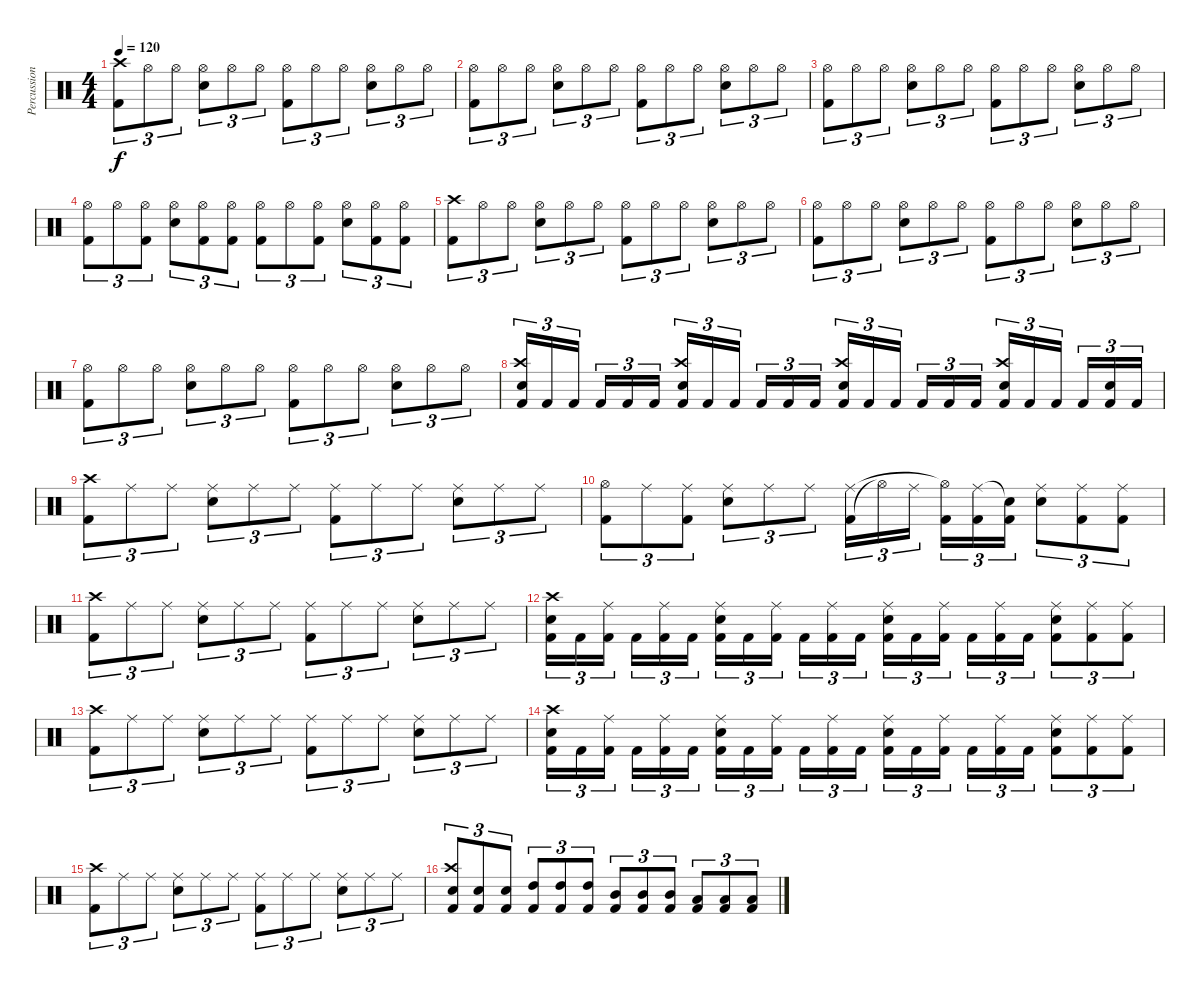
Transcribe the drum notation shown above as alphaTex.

\track ("Percussions" "Percussion") {instrument percussion}
\staff {score}
\articulation defaults
\ts (4 4)
\tempo 120
\clef neutral
\ks c
("Kick (hit) 2" "Crash high (hit)").8{tu (3 2) dy f} "Hi-Hat (open)".8{tu (3 2)} "Hi-Hat (open)".8{tu (3 2)} ("Snare (hit) 2" "Hi-Hat (open)").8{tu (3 2)} "Hi-Hat (open)".8{tu (3 2)} "Hi-Hat (open)".8{tu (3 2)} ("Kick (hit) 2" "Hi-Hat (open)").8{tu (3 2)} "Hi-Hat (open)".8{tu (3 2)} "Hi-Hat (open)".8{tu (3 2)} ("Snare (hit) 2" "Hi-Hat (open)").8{tu (3 2)} "Hi-Hat (open)".8{tu (3 2)} "Hi-Hat (open)".8{tu (3 2)} |
("Kick (hit) 2" "Hi-Hat (open)").8{tu (3 2)} "Hi-Hat (open)".8{tu (3 2)} "Hi-Hat (open)".8{tu (3 2)} ("Snare (hit) 2" "Hi-Hat (open)").8{tu (3 2)} "Hi-Hat (open)".8{tu (3 2)} "Hi-Hat (open)".8{tu (3 2)} ("Kick (hit) 2" "Hi-Hat (open)").8{tu (3 2)} "Hi-Hat (open)".8{tu (3 2)} "Hi-Hat (open)".8{tu (3 2)} ("Snare (hit) 2" "Hi-Hat (open)").8{tu (3 2)} "Hi-Hat (open)".8{tu (3 2)} "Hi-Hat (open)".8{tu (3 2)} |
("Kick (hit) 2" "Hi-Hat (open)").8{tu (3 2)} "Hi-Hat (open)".8{tu (3 2)} "Hi-Hat (open)".8{tu (3 2)} ("Snare (hit) 2" "Hi-Hat (open)").8{tu (3 2)} "Hi-Hat (open)".8{tu (3 2)} "Hi-Hat (open)".8{tu (3 2)} ("Kick (hit) 2" "Hi-Hat (open)").8{tu (3 2)} "Hi-Hat (open)".8{tu (3 2)} "Hi-Hat (open)".8{tu (3 2)} ("Snare (hit) 2" "Hi-Hat (open)").8{tu (3 2)} "Hi-Hat (open)".8{tu (3 2)} "Hi-Hat (open)".8{tu (3 2)} |
("Kick (hit) 2" "Hi-Hat (open)").8{tu (3 2)} "Hi-Hat (open)".8{tu (3 2)} ("Kick (hit) 2" "Hi-Hat (open)").8{tu (3 2)} ("Snare (hit) 2" "Hi-Hat (open)").8{tu (3 2)} ("Kick (hit) 2" "Hi-Hat (open)").8{tu (3 2)} ("Kick (hit) 2" "Hi-Hat (open)").8{tu (3 2)} ("Kick (hit) 2" "Hi-Hat (open)").8{tu (3 2)} "Hi-Hat (open)".8{tu (3 2)} ("Kick (hit) 2" "Hi-Hat (open)").8{tu (3 2)} ("Snare (hit) 2" "Hi-Hat (open)").8{tu (3 2)} ("Kick (hit) 2" "Hi-Hat (open)").8{tu (3 2)} ("Kick (hit) 2" "Hi-Hat (open)").8{tu (3 2)} |
("Kick (hit) 2" "Crash high (hit)").8{tu (3 2)} "Hi-Hat (open)".8{tu (3 2)} "Hi-Hat (open)".8{tu (3 2)} ("Snare (hit) 2" "Hi-Hat (open)").8{tu (3 2)} "Hi-Hat (open)".8{tu (3 2)} "Hi-Hat (open)".8{tu (3 2)} ("Kick (hit) 2" "Hi-Hat (open)").8{tu (3 2)} "Hi-Hat (open)".8{tu (3 2)} "Hi-Hat (open)".8{tu (3 2)} ("Snare (hit) 2" "Hi-Hat (open)").8{tu (3 2)} "Hi-Hat (open)".8{tu (3 2)} "Hi-Hat (open)".8{tu (3 2)} |
("Kick (hit) 2" "Hi-Hat (open)").8{tu (3 2)} "Hi-Hat (open)".8{tu (3 2)} "Hi-Hat (open)".8{tu (3 2)} ("Snare (hit) 2" "Hi-Hat (open)").8{tu (3 2)} "Hi-Hat (open)".8{tu (3 2)} "Hi-Hat (open)".8{tu (3 2)} ("Kick (hit) 2" "Hi-Hat (open)").8{tu (3 2)} "Hi-Hat (open)".8{tu (3 2)} "Hi-Hat (open)".8{tu (3 2)} ("Snare (hit) 2" "Hi-Hat (open)").8{tu (3 2)} "Hi-Hat (open)".8{tu (3 2)} "Hi-Hat (open)".8{tu (3 2)} |
("Kick (hit) 2" "Hi-Hat (open)").8{tu (3 2)} "Hi-Hat (open)".8{tu (3 2)} "Hi-Hat (open)".8{tu (3 2)} ("Snare (hit) 2" "Hi-Hat (open)").8{tu (3 2)} "Hi-Hat (open)".8{tu (3 2)} "Hi-Hat (open)".8{tu (3 2)} ("Kick (hit) 2" "Hi-Hat (open)").8{tu (3 2)} "Hi-Hat (open)".8{tu (3 2)} "Hi-Hat (open)".8{tu (3 2)} ("Snare (hit) 2" "Hi-Hat (open)").8{tu (3 2)} "Hi-Hat (open)".8{tu (3 2)} "Hi-Hat (open)".8{tu (3 2)} |
("Kick (hit) 2" "Snare (hit) 2" "Crash high (hit)").16{tu (3 2)} "Kick (hit) 2".16{tu (3 2)} "Kick (hit) 2".16{tu (3 2)} "Kick (hit) 2".16{tu (3 2)} "Kick (hit) 2".16{tu (3 2)} "Kick (hit) 2".16{tu (3 2)} ("Kick (hit) 2" "Snare (hit) 2" "Crash high (hit)").16{tu (3 2)} "Kick (hit) 2".16{tu (3 2)} "Kick (hit) 2".16{tu (3 2)} "Kick (hit) 2".16{tu (3 2)} "Kick (hit) 2".16{tu (3 2)} "Kick (hit) 2".16{tu (3 2)} ("Kick (hit) 2" "Snare (hit) 2" "Crash high (hit)").16{tu (3 2)} "Kick (hit) 2".16{tu (3 2)} "Kick (hit) 2".16{tu (3 2)} "Kick (hit) 2".16{tu (3 2)} "Kick (hit) 2".16{tu (3 2)} "Kick (hit) 2".16{tu (3 2)} ("Kick (hit) 2" "Snare (hit) 2" "Crash high (hit)").16{tu (3 2)} "Kick (hit) 2".16{tu (3 2)} "Kick (hit) 2".16{tu (3 2)} "Kick (hit) 2".16{tu (3 2)} ("Kick (hit) 2" "Snare (hit) 2").16{tu (3 2)} "Kick (hit) 2".16{tu (3 2)} |
("Kick (hit) 2" "Crash high (hit)").8{tu (3 2)} "Ride (middle)".8{tu (3 2)} "Ride (middle)".8{tu (3 2)} ("Snare (hit) 2" "Ride (middle)").8{tu (3 2)} "Ride (middle)".8{tu (3 2)} "Ride (middle)".8{tu (3 2)} ("Kick (hit) 2" "Ride (middle)").8{tu (3 2)} "Ride (middle)".8{tu (3 2)} "Ride (middle)".8{tu (3 2)} ("Snare (hit) 2" "Ride (middle)").8{tu (3 2)} "Ride (middle)".8{tu (3 2)} "Ride (middle)".8{tu (3 2)} |
("Kick (hit) 2" "Hi-Hat (open)").8{tu (3 2)} "Ride (middle)".8{tu (3 2)} ("Kick (hit) 2" "Ride (middle)").8{tu (3 2)} ("Snare (hit) 2" "Ride (middle)").8{tu (3 2)} "Ride (middle)".8{tu (3 2)} "Ride (middle)".8{tu (3 2)} ("Kick (hit) 2" "Ride (middle)").16{tu (3 2)} "Hi-Hat (open)"{t}.16{tu (3 2)} "Ride (middle)".16{tu (3 2)} ("Kick (hit) 2" "Hi-Hat (open)"{t}).16{tu (3 2)} ("Kick (hit) 2" "Ride (middle)").16{tu (3 2)} ("Kick (hit) 2" "Snare (hit)"{t}).16{tu (3 2)} ("Snare (hit) 2" "Ride (middle)").8{tu (3 2)} ("Kick (hit) 2" "Ride (middle)").8{tu (3 2)} ("Kick (hit) 2" "Ride (middle)").8{tu (3 2)} |
("Kick (hit) 2" "Crash high (hit)").8{tu (3 2)} "Ride (middle)".8{tu (3 2)} "Ride (middle)".8{tu (3 2)} ("Snare (hit) 2" "Ride (middle)").8{tu (3 2)} "Ride (middle)".8{tu (3 2)} "Ride (middle)".8{tu (3 2)} ("Kick (hit) 2" "Ride (middle)").8{tu (3 2)} "Ride (middle)".8{tu (3 2)} "Ride (middle)".8{tu (3 2)} ("Snare (hit) 2" "Ride (middle)").8{tu (3 2)} "Ride (middle)".8{tu (3 2)} "Ride (middle)".8{tu (3 2)} |
("Kick (hit) 2" "Snare (hit) 2" "Crash high (hit)").16{tu (3 2)} "Kick (hit) 2".16{tu (3 2)} ("Kick (hit) 2" "Ride (middle)").16{tu (3 2)} "Kick (hit) 2".16{tu (3 2)} ("Kick (hit) 2" "Ride (middle)").16{tu (3 2)} "Kick (hit) 2".16{tu (3 2)} ("Kick (hit) 2" "Snare (hit) 2" "Ride (middle)").16{tu (3 2)} "Kick (hit) 2".16{tu (3 2)} ("Kick (hit) 2" "Ride (middle)").16{tu (3 2)} "Kick (hit) 2".16{tu (3 2)} ("Kick (hit) 2" "Ride (middle)").16{tu (3 2)} "Kick (hit) 2".16{tu (3 2)} ("Kick (hit) 2" "Snare (hit) 2" "Ride (middle)").16{tu (3 2)} "Kick (hit) 2".16{tu (3 2)} ("Kick (hit) 2" "Ride (middle)").16{tu (3 2)} "Kick (hit) 2".16{tu (3 2)} ("Kick (hit) 2" "Ride (middle)").16{tu (3 2)} "Kick (hit) 2".16{tu (3 2)} ("Kick (hit) 2" "Snare (hit) 2" "Ride (middle)").8{tu (3 2)} ("Kick (hit) 2" "Ride (middle)").8{tu (3 2)} ("Kick (hit) 2" "Ride (middle)").8{tu (3 2)} |
("Kick (hit) 2" "Crash high (hit)").8{tu (3 2)} "Ride (middle)".8{tu (3 2)} "Ride (middle)".8{tu (3 2)} ("Snare (hit) 2" "Ride (middle)").8{tu (3 2)} "Ride (middle)".8{tu (3 2)} "Ride (middle)".8{tu (3 2)} ("Kick (hit) 2" "Ride (middle)").8{tu (3 2)} "Ride (middle)".8{tu (3 2)} "Ride (middle)".8{tu (3 2)} ("Snare (hit) 2" "Ride (middle)").8{tu (3 2)} "Ride (middle)".8{tu (3 2)} "Ride (middle)".8{tu (3 2)} |
("Kick (hit) 2" "Snare (hit) 2" "Crash high (hit)").16{tu (3 2)} "Kick (hit) 2".16{tu (3 2)} ("Kick (hit) 2" "Ride (middle)").16{tu (3 2)} "Kick (hit) 2".16{tu (3 2)} ("Kick (hit) 2" "Ride (middle)").16{tu (3 2)} "Kick (hit) 2".16{tu (3 2)} ("Kick (hit) 2" "Snare (hit) 2" "Ride (middle)").16{tu (3 2)} "Kick (hit) 2".16{tu (3 2)} ("Kick (hit) 2" "Ride (middle)").16{tu (3 2)} "Kick (hit) 2".16{tu (3 2)} ("Kick (hit) 2" "Ride (middle)").16{tu (3 2)} "Kick (hit) 2".16{tu (3 2)} ("Kick (hit) 2" "Snare (hit) 2" "Ride (middle)").16{tu (3 2)} "Kick (hit) 2".16{tu (3 2)} ("Kick (hit) 2" "Ride (middle)").16{tu (3 2)} "Kick (hit) 2".16{tu (3 2)} ("Kick (hit) 2" "Ride (middle)").16{tu (3 2)} "Kick (hit) 2".16{tu (3 2)} ("Kick (hit) 2" "Snare (hit) 2" "Ride (middle)").8{tu (3 2)} ("Kick (hit) 2" "Ride (middle)").8{tu (3 2)} ("Kick (hit) 2" "Ride (middle)").8{tu (3 2)} |
("Kick (hit) 2" "Crash high (hit)").8{tu (3 2)} "Ride (middle)".8{tu (3 2)} "Ride (middle)".8{tu (3 2)} ("Snare (hit) 2" "Ride (middle)").8{tu (3 2)} "Ride (middle)".8{tu (3 2)} "Ride (middle)".8{tu (3 2)} ("Kick (hit) 2" "Ride (middle)").8{tu (3 2)} "Ride (middle)".8{tu (3 2)} "Ride (middle)".8{tu (3 2)} ("Snare (hit) 2" "Ride (middle)").8{tu (3 2)} "Ride (middle)".8{tu (3 2)} "Ride (middle)".8{tu (3 2)} |
("Kick (hit) 2" "Snare (hit) 2" "Crash high (hit)").8{tu (3 2)} ("Kick (hit) 2" "Snare (hit) 2").8{tu (3 2)} ("Kick (hit) 2" "Snare (hit) 2").8{tu (3 2)} ("Kick (hit) 2" "High Tom (hit)").8{tu (3 2)} ("Kick (hit) 2" "High Tom (hit)").8{tu (3 2)} ("Kick (hit) 2" "High Tom (hit)").8{tu (3 2)} ("Kick (hit) 2" "Mid Tom (hit)").8{tu (3 2)} ("Kick (hit) 2" "Mid Tom (hit)").8{tu (3 2)} ("Kick (hit) 2" "Mid Tom (hit)").8{tu (3 2)} ("Kick (hit) 2" "Low Tom (hit)").8{tu (3 2)} ("Kick (hit) 2" "Low Tom (hit)").8{tu (3 2)} ("Kick (hit) 2" "Low Tom (hit)").8{tu (3 2)}
